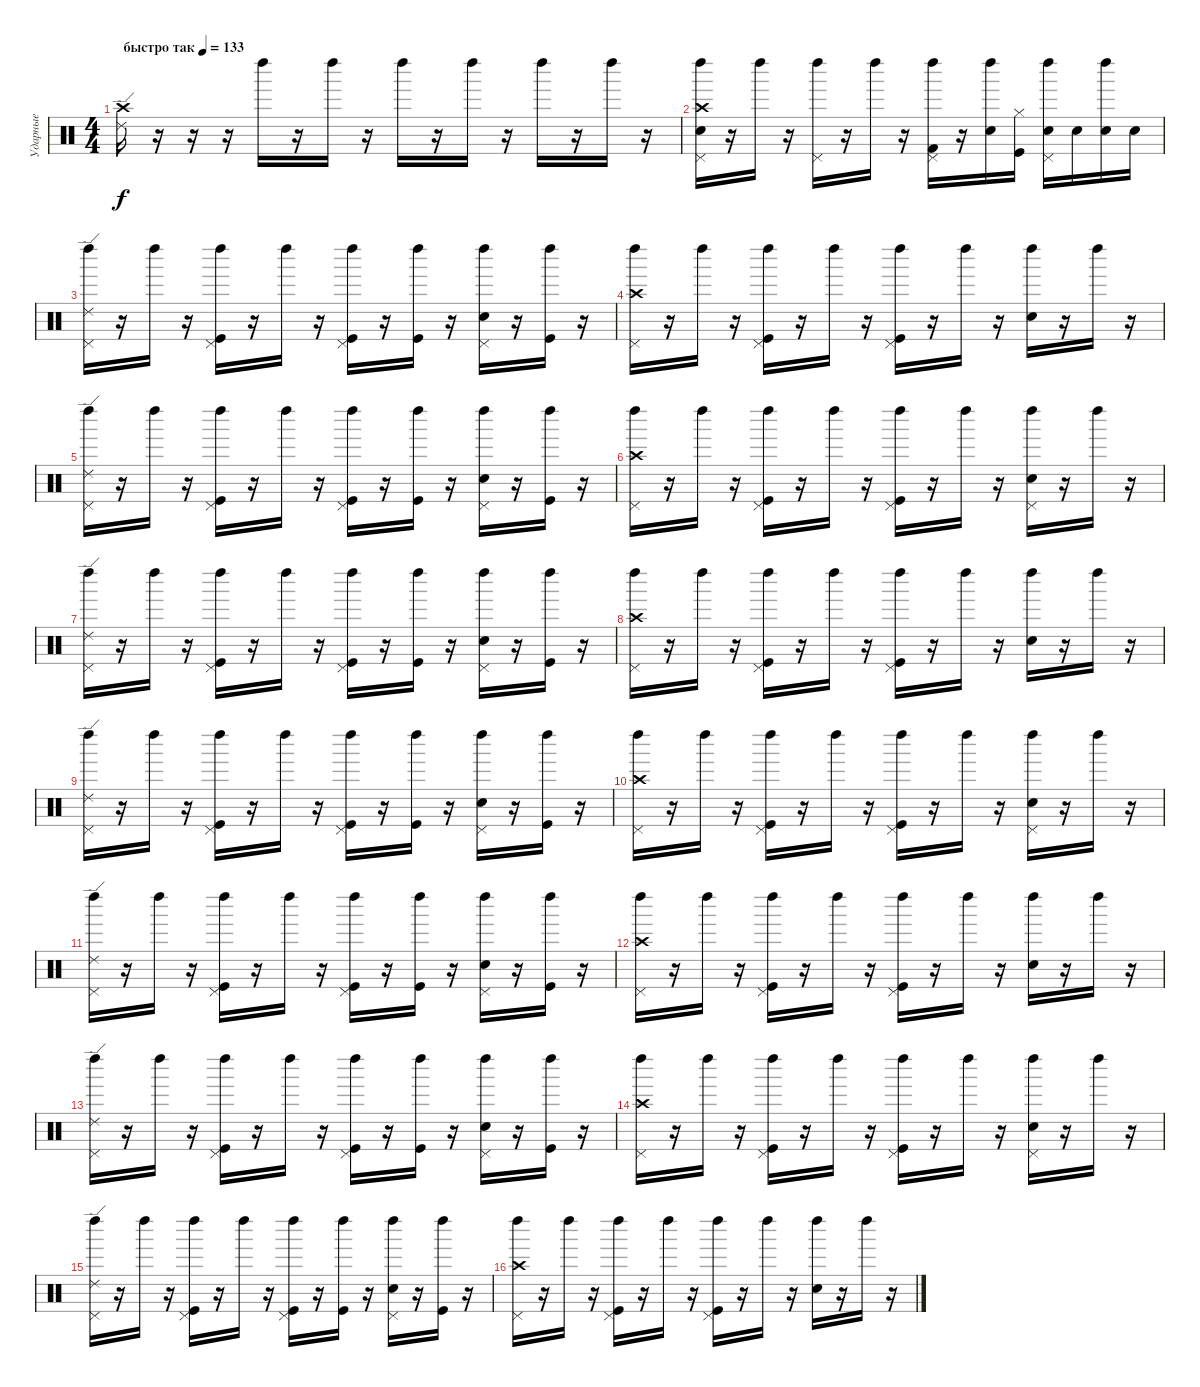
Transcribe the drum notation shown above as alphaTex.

\track ("Ударные" "Ударные") {instrument percussion}
\staff {score}
\articulation defaults
\ts (4 4)
\tempo (133 "быстро так")
\clef neutral
\ks c
("Crash high (hit)" "Ride (edge) 2").16{dy f} r.16 r.16 r.16 "Left Maraca (hit)".16 r.16 "Left Maraca (hit)".16 r.16 "Left Maraca (hit)".16 r.16 "Left Maraca (hit)".16 r.16 "Left Maraca (hit)".16 r.16 "Left Maraca (hit)".16 r.16 |
("Left Maraca (hit)" "Pedal Hi-Hat (hit)" "Electric Snare (hit)" "Crash high (hit)").16 r.16 "Left Maraca (hit)".16 r.16 ("Left Maraca (hit)" "Pedal Hi-Hat (hit)").16 r.16 "Left Maraca (hit)".16 r.16 ("Left Maraca (hit)" "Pedal Hi-Hat (hit)" "Kick (hit) 2").16 r.16 ("Left Maraca (hit)" "Electric Snare (hit)").16 ("Hi-Hat (closed)" "Kick (hit)").16 ("Left Maraca (hit)" "Pedal Hi-Hat (hit)" "Snare (hit) 2").16 "Snare (hit) 2".16 ("Left Maraca (hit)" "Snare (hit) 2").16 "Snare (hit) 2".16 |
("Left Maraca (hit)" "Pedal Hi-Hat (hit)" "Ride (edge) 2").16 r.16 "Left Maraca (hit)".16 r.16 ("Left Maraca (hit)" "Pedal Hi-Hat (hit)" "Kick (hit)").16 r.16 "Left Maraca (hit)".16 r.16 ("Left Maraca (hit)" "Pedal Hi-Hat (hit)" "Kick (hit)").16 r.16 ("Left Maraca (hit)" "Kick (hit)").16 r.16 ("Left Maraca (hit)" "Pedal Hi-Hat (hit)" "Snare (hit) 2").16 r.16 ("Left Maraca (hit)" "Kick (hit)").16 r.16 |
("Left Maraca (hit)" "Pedal Hi-Hat (hit)" "Crash high (hit)").16 r.16 "Left Maraca (hit)".16 r.16 ("Left Maraca (hit)" "Pedal Hi-Hat (hit)" "Kick (hit)").16 r.16 "Left Maraca (hit)".16 r.16 ("Left Maraca (hit)" "Pedal Hi-Hat (hit)" "Kick (hit)").16 r.16 "Left Maraca (hit)".16 r.16 ("Left Maraca (hit)" "Electric Snare (hit)").16 r.16 "Left Maraca (hit)".16 r.16 |
("Left Maraca (hit)" "Pedal Hi-Hat (hit)" "Ride (edge) 2").16 r.16 "Left Maraca (hit)".16 r.16 ("Left Maraca (hit)" "Pedal Hi-Hat (hit)" "Kick (hit)").16 r.16 "Left Maraca (hit)".16 r.16 ("Left Maraca (hit)" "Pedal Hi-Hat (hit)" "Kick (hit)").16 r.16 ("Left Maraca (hit)" "Kick (hit)").16 r.16 ("Left Maraca (hit)" "Pedal Hi-Hat (hit)" "Snare (hit) 2").16 r.16 ("Left Maraca (hit)" "Kick (hit)").16 r.16 |
("Left Maraca (hit)" "Pedal Hi-Hat (hit)" "Crash high (hit)").16 r.16 "Left Maraca (hit)".16 r.16 ("Left Maraca (hit)" "Pedal Hi-Hat (hit)" "Kick (hit)").16 r.16 "Left Maraca (hit)".16 r.16 ("Left Maraca (hit)" "Pedal Hi-Hat (hit)" "Kick (hit)").16 r.16 "Left Maraca (hit)".16 r.16 ("Left Maraca (hit)" "Pedal Hi-Hat (hit)" "Electric Snare (hit)").16 r.16 "Left Maraca (hit)".16 r.16 |
("Left Maraca (hit)" "Pedal Hi-Hat (hit)" "Ride (edge) 2").16 r.16 "Left Maraca (hit)".16 r.16 ("Left Maraca (hit)" "Pedal Hi-Hat (hit)" "Kick (hit)").16 r.16 "Left Maraca (hit)".16 r.16 ("Left Maraca (hit)" "Pedal Hi-Hat (hit)" "Kick (hit)").16 r.16 ("Left Maraca (hit)" "Kick (hit)").16 r.16 ("Left Maraca (hit)" "Pedal Hi-Hat (hit)" "Snare (hit) 2").16 r.16 ("Left Maraca (hit)" "Kick (hit)").16 r.16 |
("Left Maraca (hit)" "Pedal Hi-Hat (hit)" "Crash high (hit)").16 r.16 "Left Maraca (hit)".16 r.16 ("Left Maraca (hit)" "Pedal Hi-Hat (hit)" "Kick (hit)").16 r.16 "Left Maraca (hit)".16 r.16 ("Left Maraca (hit)" "Pedal Hi-Hat (hit)" "Kick (hit)").16 r.16 "Left Maraca (hit)".16 r.16 ("Left Maraca (hit)" "Electric Snare (hit)").16 r.16 "Left Maraca (hit)".16 r.16 |
("Left Maraca (hit)" "Pedal Hi-Hat (hit)" "Ride (edge) 2").16 r.16 "Left Maraca (hit)".16 r.16 ("Left Maraca (hit)" "Pedal Hi-Hat (hit)" "Kick (hit)").16 r.16 "Left Maraca (hit)".16 r.16 ("Left Maraca (hit)" "Pedal Hi-Hat (hit)" "Kick (hit)").16 r.16 ("Left Maraca (hit)" "Kick (hit)").16 r.16 ("Left Maraca (hit)" "Pedal Hi-Hat (hit)" "Snare (hit) 2").16 r.16 ("Left Maraca (hit)" "Kick (hit)").16 r.16 |
("Left Maraca (hit)" "Pedal Hi-Hat (hit)" "Crash high (hit)").16 r.16 "Left Maraca (hit)".16 r.16 ("Left Maraca (hit)" "Pedal Hi-Hat (hit)" "Kick (hit)").16 r.16 "Left Maraca (hit)".16 r.16 ("Left Maraca (hit)" "Pedal Hi-Hat (hit)" "Kick (hit)").16 r.16 "Left Maraca (hit)".16 r.16 ("Left Maraca (hit)" "Pedal Hi-Hat (hit)" "Electric Snare (hit)").16 r.16 "Left Maraca (hit)".16 r.16 |
("Left Maraca (hit)" "Pedal Hi-Hat (hit)" "Ride (edge) 2").16 r.16 "Left Maraca (hit)".16 r.16 ("Left Maraca (hit)" "Pedal Hi-Hat (hit)" "Kick (hit)").16 r.16 "Left Maraca (hit)".16 r.16 ("Left Maraca (hit)" "Pedal Hi-Hat (hit)" "Kick (hit)").16 r.16 ("Left Maraca (hit)" "Kick (hit)").16 r.16 ("Left Maraca (hit)" "Pedal Hi-Hat (hit)" "Snare (hit) 2").16 r.16 ("Left Maraca (hit)" "Kick (hit)").16 r.16 |
("Left Maraca (hit)" "Pedal Hi-Hat (hit)" "Crash high (hit)").16 r.16 "Left Maraca (hit)".16 r.16 ("Left Maraca (hit)" "Pedal Hi-Hat (hit)" "Kick (hit)").16 r.16 "Left Maraca (hit)".16 r.16 ("Left Maraca (hit)" "Pedal Hi-Hat (hit)" "Kick (hit)").16 r.16 "Left Maraca (hit)".16 r.16 ("Left Maraca (hit)" "Electric Snare (hit)").16 r.16 "Left Maraca (hit)".16 r.16 |
("Left Maraca (hit)" "Pedal Hi-Hat (hit)" "Ride (edge) 2").16 r.16 "Left Maraca (hit)".16 r.16 ("Left Maraca (hit)" "Pedal Hi-Hat (hit)" "Kick (hit)").16 r.16 "Left Maraca (hit)".16 r.16 ("Left Maraca (hit)" "Pedal Hi-Hat (hit)" "Kick (hit)").16 r.16 ("Left Maraca (hit)" "Kick (hit)").16 r.16 ("Left Maraca (hit)" "Pedal Hi-Hat (hit)" "Snare (hit) 2").16 r.16 ("Left Maraca (hit)" "Kick (hit)").16 r.16 |
("Left Maraca (hit)" "Pedal Hi-Hat (hit)" "Crash high (hit)").16 r.16 "Left Maraca (hit)".16 r.16 ("Left Maraca (hit)" "Pedal Hi-Hat (hit)" "Kick (hit)").16 r.16 "Left Maraca (hit)".16 r.16 ("Left Maraca (hit)" "Pedal Hi-Hat (hit)" "Kick (hit)").16 r.16 "Left Maraca (hit)".16 r.16 ("Left Maraca (hit)" "Pedal Hi-Hat (hit)" "Electric Snare (hit)").16 r.16 "Left Maraca (hit)".16 r.16 |
("Left Maraca (hit)" "Pedal Hi-Hat (hit)" "Ride (edge) 2").16 r.16 "Left Maraca (hit)".16 r.16 ("Left Maraca (hit)" "Pedal Hi-Hat (hit)" "Kick (hit)").16 r.16 "Left Maraca (hit)".16 r.16 ("Left Maraca (hit)" "Pedal Hi-Hat (hit)" "Kick (hit)").16 r.16 ("Left Maraca (hit)" "Kick (hit)").16 r.16 ("Left Maraca (hit)" "Pedal Hi-Hat (hit)" "Snare (hit) 2").16 r.16 ("Left Maraca (hit)" "Kick (hit)").16 r.16 |
("Left Maraca (hit)" "Pedal Hi-Hat (hit)" "Crash high (hit)").16 r.16 "Left Maraca (hit)".16 r.16 ("Left Maraca (hit)" "Pedal Hi-Hat (hit)" "Kick (hit)").16 r.16 "Left Maraca (hit)".16 r.16 ("Left Maraca (hit)" "Pedal Hi-Hat (hit)" "Kick (hit)").16 r.16 "Left Maraca (hit)".16 r.16 ("Left Maraca (hit)" "Electric Snare (hit)").16 r.16 "Left Maraca (hit)".16 r.16
